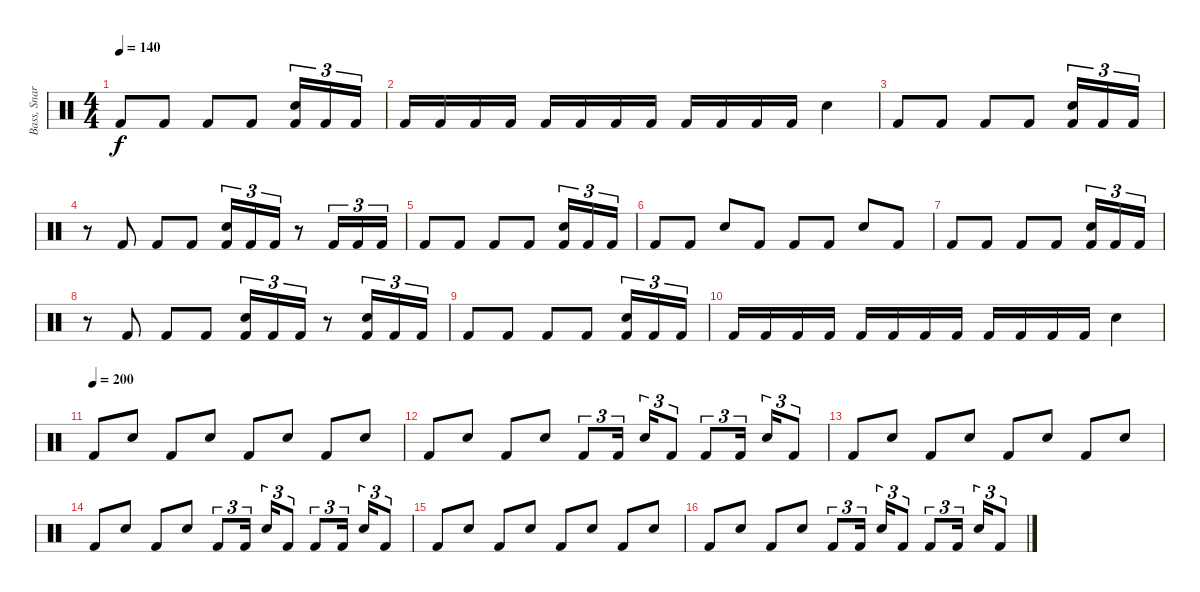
\track ("Bass, Snare & Toms" "Bass, Snar") {instrument percussion}
\staff {score}
\articulation defaults
\ts (4 4)
\tempo 140
\clef neutral
\ks c "Kick (hit) 2".8{dy f} "Kick (hit) 2".8 "Kick (hit) 2".8 "Kick (hit) 2".8
("Electric Snare (hit)" "Kick (hit) 2").16{tu (3 2)} "Kick (hit) 2".16{tu (3 2)} "Kick (hit) 2".16{tu (3 2)} |
"Kick (hit) 2".16 "Kick (hit) 2".16 "Kick (hit) 2".16 "Kick (hit) 2".16 "Kick (hit) 2".16 "Kick (hit) 2".16 "Kick (hit) 2".16 "Kick (hit) 2".16 "Kick (hit) 2".16 "Kick (hit) 2".16 "Kick (hit) 2".16 "Kick (hit) 2".16 "Electric Snare (hit)".4 |
"Kick (hit) 2".8 "Kick (hit) 2".8 "Kick (hit) 2".8 "Kick (hit) 2".8 ("Electric Snare (hit)" "Kick (hit) 2").16{tu (3 2)} "Kick (hit) 2".16{tu (3 2)} "Kick (hit) 2".16{tu (3 2)} |
r.8 "Kick (hit) 2".8 "Kick (hit) 2".8 "Kick (hit) 2".8 ("Electric Snare (hit)" "Kick (hit) 2").16{tu (3 2)} "Kick (hit) 2".16{tu (3 2)} "Kick (hit) 2".16{tu (3 2)} r.8 "Kick (hit) 2".16{tu (3 2)} "Kick (hit) 2".16{tu (3 2)} "Kick (hit) 2".16{tu (3 2)} |
"Kick (hit) 2".8 "Kick (hit) 2".8 "Kick (hit) 2".8 "Kick (hit) 2".8 ("Electric Snare (hit)" "Kick (hit) 2").16{tu (3 2)} "Kick (hit) 2".16{tu (3 2)} "Kick (hit) 2".16{tu (3 2)} |
"Kick (hit) 2".8 "Kick (hit) 2".8 "Electric Snare (hit)".8 "Kick (hit) 2".8 "Kick (hit) 2".8 "Kick (hit) 2".8 "Electric Snare (hit)".8 "Kick (hit) 2".8 |
"Kick (hit) 2".8 "Kick (hit) 2".8 "Kick (hit) 2".8 "Kick (hit) 2".8 ("Electric Snare (hit)" "Kick (hit) 2").16{tu (3 2)} "Kick (hit) 2".16{tu (3 2)} "Kick (hit) 2".16{tu (3 2)} |
r.8 "Kick (hit) 2".8 "Kick (hit) 2".8 "Kick (hit) 2".8 ("Electric Snare (hit)" "Kick (hit) 2").16{tu (3 2)} "Kick (hit) 2".16{tu (3 2)} "Kick (hit) 2".16{tu (3 2)} r.8 ("Electric Snare (hit)" "Kick (hit) 2").16{tu (3 2)} "Kick (hit) 2".16{tu (3 2)} "Kick (hit) 2".16{tu (3 2)} |
"Kick (hit) 2".8 "Kick (hit) 2".8 "Kick (hit) 2".8 "Kick (hit) 2".8 ("Electric Snare (hit)" "Kick (hit) 2").16{tu (3 2)} "Kick (hit) 2".16{tu (3 2)} "Kick (hit) 2".16{tu (3 2)} |
"Kick (hit) 2".16 "Kick (hit) 2".16 "Kick (hit) 2".16 "Kick (hit) 2".16 "Kick (hit) 2".16 "Kick (hit) 2".16 "Kick (hit) 2".16 "Kick (hit) 2".16 "Kick (hit) 2".16 "Kick (hit) 2".16 "Kick (hit) 2".16 "Kick (hit) 2".16 "Electric Snare (hit)".4 |
\tempo (200)
"Kick (hit) 2".8 "Electric Snare (hit)".8 "Kick (hit) 2".8 "Electric Snare (hit)".8 "Kick (hit) 2".8 "Electric Snare (hit)".8 "Kick (hit) 2".8 "Electric Snare (hit)".8 |
"Kick (hit) 2".8 "Electric Snare (hit)".8 "Kick (hit) 2".8 "Electric Snare (hit)".8 "Kick (hit) 2".8{tu (3 2)} "Kick (hit) 2".16{tu (3 2)} "Electric Snare (hit)".16{tu (3 2)} "Kick (hit) 2".8{tu (3 2)} "Kick (hit) 2".8{tu (3 2)} "Kick (hit) 2".16{tu (3 2)} "Electric Snare (hit)".16{tu (3 2)} "Kick (hit) 2".8{tu (3 2)} |
"Kick (hit) 2".8 "Electric Snare (hit)".8 "Kick (hit) 2".8 "Electric Snare (hit)".8 "Kick (hit) 2".8 "Electric Snare (hit)".8 "Kick (hit) 2".8 "Electric Snare (hit)".8 |
"Kick (hit) 2".8 "Electric Snare (hit)".8 "Kick (hit) 2".8 "Electric Snare (hit)".8 "Kick (hit) 2".8{tu (3 2)} "Kick (hit) 2".16{tu (3 2)} "Electric Snare (hit)".16{tu (3 2)} "Kick (hit) 2".8{tu (3 2)} "Kick (hit) 2".8{tu (3 2)} "Kick (hit) 2".16{tu (3 2)} "Electric Snare (hit)".16{tu (3 2)} "Kick (hit) 2".8{tu (3 2)} |
"Kick (hit) 2".8 "Electric Snare (hit)".8 "Kick (hit) 2".8 "Electric Snare (hit)".8 "Kick (hit) 2".8 "Electric Snare (hit)".8 "Kick (hit) 2".8 "Electric Snare (hit)".8 |
"Kick (hit) 2".8 "Electric Snare (hit)".8 "Kick (hit) 2".8 "Electric Snare (hit)".8 "Kick (hit) 2".8{tu (3 2)} "Kick (hit) 2".16{tu (3 2)} "Electric Snare (hit)".16{tu (3 2)} "Kick (hit) 2".8{tu (3 2)} "Kick (hit) 2".8{tu (3 2)} "Kick (hit) 2".16{tu (3 2)} "Electric Snare (hit)".16{tu (3 2)} "Kick (hit) 2".8{tu (3 2)}
